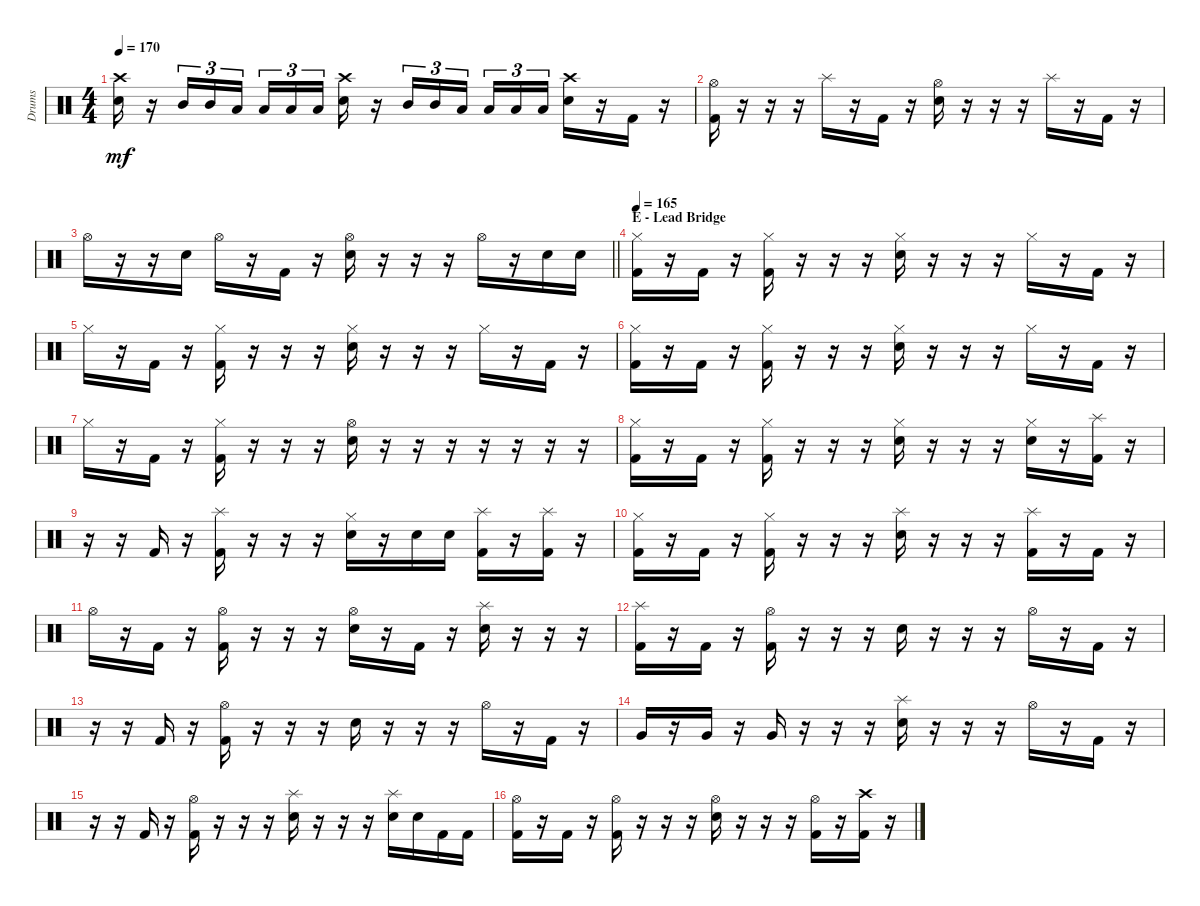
\track ("Drums" "Drums") {instrument percussion}
\staff {score}
\articulation defaults
\ts (4 4)
\tempo 170
\clef neutral
\ks c
("Crash high (hit)" "Electric Snare (hit)").16{dy mf} r.16 "Mid Tom (hit)".16{tu (3 2)} "Mid Tom (hit)".16{tu (3 2)} "Low Tom (hit)".16{tu (3 2)} "Low Tom (hit)".16{tu (3 2)} "Low Tom (hit)".16{tu (3 2)} "Low Tom (hit)".16{tu (3 2) beam splitsecondary} ("Crash high (hit)" "Electric Snare (hit)").16 r.16 "Mid Tom (hit)".16{tu (3 2)} "Mid Tom (hit)".16{tu (3 2)} "Low Tom (hit)".16{tu (3 2) beam splitsecondary} "Low Tom (hit)".16{tu (3 2)} "Low Tom (hit)".16{tu (3 2)} "Low Tom (hit)".16{tu (3 2)} ("Crash high (hit)" "Electric Snare (hit)").16 r.16 "Kick (hit) 2".16 r.16 |
("Hi-Hat (open)" "Kick (hit) 2").16 r.16 r.16 r.16 "Splash (hit)".16 r.16 "Kick (hit) 2".16 r.16 ("Hi-Hat (open)" "Electric Snare (hit)").16 r.16 r.16 r.16 "Splash (hit)".16 r.16 "Kick (hit) 2".16 r.16 |
\barLineRight lightlight "Hi-Hat (open)".16
r.16 r.16 "Electric Snare (hit)".16 "Hi-Hat (open)".16 r.16 "Kick (hit) 2".16 r.16 ("Hi-Hat (open)" "Electric Snare (hit)").16 r.16 r.16 r.16 "Hi-Hat (open)".16 r.16 "Electric Snare (hit)".16 "Electric Snare (hit)".16 |
\section ("" "E - Lead Bridge")
\tempo 165
("Hi-Hat (closed)" "Kick (hit) 2").16 r.16 "Kick (hit) 2".16 r.16 ("Hi-Hat (closed)" "Kick (hit) 2").16 r.16 r.16 r.16 ("Hi-Hat (closed)" "Electric Snare (hit)").16 r.16 r.16 r.16 "Hi-Hat (closed)".16 r.16 "Kick (hit) 2".16 r.16 |
"Hi-Hat (closed)".16 r.16 "Kick (hit) 2".16 r.16 ("Hi-Hat (closed)" "Kick (hit) 2").16 r.16 r.16 r.16 ("Hi-Hat (closed)" "Electric Snare (hit)").16 r.16 r.16 r.16 "Hi-Hat (closed)".16 r.16 "Kick (hit) 2".16 r.16 |
("Hi-Hat (closed)" "Kick (hit) 2").16 r.16 "Kick (hit) 2".16 r.16 ("Hi-Hat (closed)" "Kick (hit) 2").16 r.16 r.16 r.16 ("Hi-Hat (closed)" "Electric Snare (hit)").16 r.16 r.16 r.16 "Hi-Hat (closed)".16 r.16 "Kick (hit) 2".16 r.16 |
"Hi-Hat (closed)".16 r.16 "Kick (hit) 2".16 r.16 ("Hi-Hat (closed)" "Kick (hit) 2").16 r.16 r.16 r.16 ("Hi-Hat (open)" "Electric Snare (hit)").16 r.16 r.16 r.16 r.16 r.16 r.16 r.16 |
("Hi-Hat (closed)" "Kick (hit) 2").16 r.16 "Kick (hit) 2".16 r.16 ("Hi-Hat (closed)" "Kick (hit) 2").16 r.16 r.16 r.16 ("Hi-Hat (closed)" "Electric Snare (hit)").16 r.16 r.16 r.16 ("Hi-Hat (closed)" "Electric Snare (hit)").16 r.16 ("Splash (hit)" "Kick (hit) 2").16 r.16 |
r.16 r.16 "Kick (hit) 2".16 r.16 ("Splash (hit)" "Kick (hit) 2").16 r.16 r.16 r.16 ("Hi-Hat (closed)" "Electric Snare (hit)").16 r.16 "Electric Snare (hit)".16 "Electric Snare (hit)".16 ("Splash (hit)" "Kick (hit) 2").16 r.16 ("Splash (hit)" "Kick (hit) 2").16 r.16 |
("Hi-Hat (closed)" "Kick (hit) 2").16 r.16 "Kick (hit) 2".16 r.16 ("Hi-Hat (closed)" "Kick (hit) 2").16 r.16 r.16 r.16 ("Splash (hit)" "Electric Snare (hit)").16 r.16 r.16 r.16 ("Splash (hit)" "Kick (hit) 2").16 r.16 "Kick (hit) 2".16 r.16 |
"Hi-Hat (open)".16 r.16 "Kick (hit) 2".16 r.16 ("Hi-Hat (open)" "Kick (hit) 2").16 r.16 r.16 r.16 ("Hi-Hat (open)" "Electric Snare (hit)").16 r.16 "Kick (hit) 2".16 r.16 ("Splash (hit)" "Electric Snare (hit)").16 r.16 r.16 r.16 |
("Splash (hit)" "Kick (hit) 2").16 r.16 "Kick (hit) 2".16 r.16 ("Hi-Hat (open)" "Kick (hit) 2").16 r.16 r.16 r.16 "Electric Snare (hit)".16 r.16 r.16 r.16 "Hi-Hat (open)".16 r.16 "Kick (hit) 2".16 r.16 |
r.16 r.16 "Kick (hit) 2".16 r.16 ("Hi-Hat (open)" "Kick (hit) 2").16 r.16 r.16 r.16 "Electric Snare (hit)".16 r.16 r.16 r.16 "Hi-Hat (open)".16 r.16 "Kick (hit) 2".16 r.16 |
"Very Low Tom (hit)".16 r.16 "Very Low Tom (hit)".16 r.16 "Very Low Tom (hit)".16 r.16 r.16 r.16 ("Splash (hit)" "Electric Snare (hit)").16 r.16 r.16 r.16 "Hi-Hat (open)".16 r.16 "Kick (hit) 2".16 r.16 |
r.16 r.16 "Kick (hit) 2".16 r.16 ("Hi-Hat (open)" "Kick (hit) 2").16 r.16 r.16 r.16 ("Splash (hit)" "Electric Snare (hit)").16 r.16 r.16 r.16 ("Splash (hit)" "Electric Snare (hit)").16 "Electric Snare (hit)".16 "Kick (hit) 2".16 "Kick (hit) 2".16 |
("Hi-Hat (open)" "Kick (hit) 2").16 r.16 "Kick (hit) 2".16 r.16 ("Hi-Hat (open)" "Kick (hit) 2").16 r.16 r.16 r.16 ("Hi-Hat (open)" "Electric Snare (hit)").16 r.16 r.16 r.16 ("Hi-Hat (open)" "Kick (hit) 2").16 r.16 ("Crash high (hit)" "Kick (hit) 2").16 r.16
